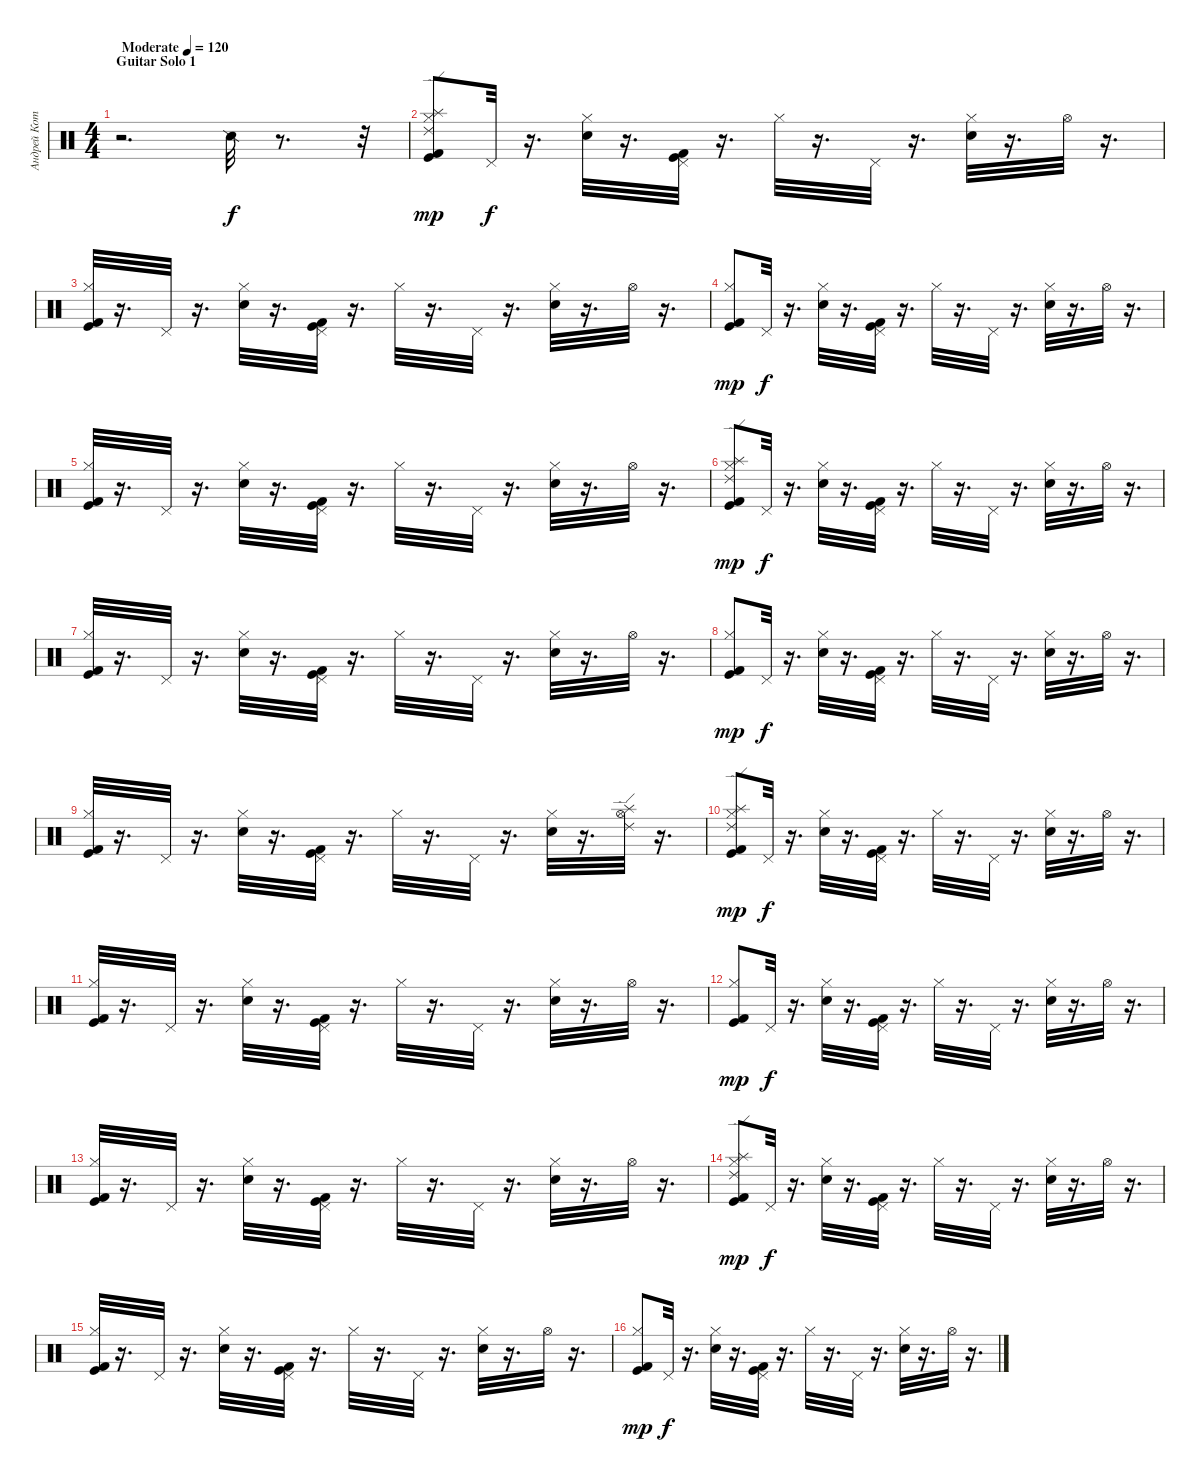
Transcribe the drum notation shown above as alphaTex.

\track ("Андрей Котов " "Андрей Кот") {instrument percussion}
\staff {score}
\articulation defaults
\ts (4 4)
\section ("" "Guitar Solo 1")
\tempo (120 "Moderate")
\clef neutral
\ks c
r.2{d dy f} "Snare (side stick) 2".32 r.8{d} r.32 |
("Kick (hit)" "Splash (hit)" "Ride (edge) 2" "Hi-Hat (closed)" "Kick (hit) 2").8{dy mp} "Pedal Hi-Hat (hit)".32{dy f} r.16{d} ("Hi-Hat (closed)" "Snare (hit) 2").32 r.16{d} ("Kick (hit)" "Pedal Hi-Hat (hit)" "Kick (hit) 2").32 r.16{d} "Hi-Hat (closed)".32 r.16{d} "Pedal Hi-Hat (hit)".32 r.16{d} ("Hi-Hat (closed)" "Snare (hit) 2").32 r.16{d} "Hi-Hat (open)".32 r.16{d} |
("Kick (hit)" "Hi-Hat (closed)" "Kick (hit) 2").32 r.16{d} "Pedal Hi-Hat (hit)".32 r.16{d} ("Hi-Hat (closed)" "Snare (hit) 2").32 r.16{d} ("Kick (hit)" "Pedal Hi-Hat (hit)" "Kick (hit) 2").32 r.16{d} "Hi-Hat (closed)".32 r.16{d} "Pedal Hi-Hat (hit)".32 r.16{d} ("Hi-Hat (closed)" "Snare (hit) 2").32 r.16{d} "Hi-Hat (open)".32 r.16{d} |
("Kick (hit)" "Hi-Hat (closed)" "Kick (hit) 2").8{dy mp} "Pedal Hi-Hat (hit)".32{dy f} r.16{d} ("Hi-Hat (closed)" "Snare (hit) 2").32 r.16{d} ("Kick (hit)" "Pedal Hi-Hat (hit)" "Kick (hit) 2").32 r.16{d} "Hi-Hat (closed)".32 r.16{d} "Pedal Hi-Hat (hit)".32 r.16{d} ("Hi-Hat (closed)" "Snare (hit) 2").32 r.16{d} "Hi-Hat (open)".32 r.16{d} |
("Kick (hit)" "Hi-Hat (closed)" "Kick (hit) 2").32 r.16{d} "Pedal Hi-Hat (hit)".32 r.16{d} ("Hi-Hat (closed)" "Snare (hit) 2").32 r.16{d} ("Kick (hit)" "Pedal Hi-Hat (hit)" "Kick (hit) 2").32 r.16{d} "Hi-Hat (closed)".32 r.16{d} "Pedal Hi-Hat (hit)".32 r.16{d} ("Hi-Hat (closed)" "Snare (hit) 2").32 r.16{d} "Hi-Hat (open)".32 r.16{d} |
("Kick (hit)" "Splash (hit)" "Ride (edge) 2" "Hi-Hat (closed)" "Kick (hit) 2").8{dy mp} "Pedal Hi-Hat (hit)".32{dy f} r.16{d} ("Hi-Hat (closed)" "Snare (hit) 2").32 r.16{d} ("Kick (hit)" "Pedal Hi-Hat (hit)" "Kick (hit) 2").32 r.16{d} "Hi-Hat (closed)".32 r.16{d} "Pedal Hi-Hat (hit)".32 r.16{d} ("Hi-Hat (closed)" "Snare (hit) 2").32 r.16{d} "Hi-Hat (open)".32 r.16{d} |
("Kick (hit)" "Hi-Hat (closed)" "Kick (hit) 2").32 r.16{d} "Pedal Hi-Hat (hit)".32 r.16{d} ("Hi-Hat (closed)" "Snare (hit) 2").32 r.16{d} ("Kick (hit)" "Pedal Hi-Hat (hit)" "Kick (hit) 2").32 r.16{d} "Hi-Hat (closed)".32 r.16{d} "Pedal Hi-Hat (hit)".32 r.16{d} ("Hi-Hat (closed)" "Snare (hit) 2").32 r.16{d} "Hi-Hat (open)".32 r.16{d} |
("Kick (hit)" "Hi-Hat (closed)" "Kick (hit) 2").8{dy mp} "Pedal Hi-Hat (hit)".32{dy f} r.16{d} ("Hi-Hat (closed)" "Snare (hit) 2").32 r.16{d} ("Kick (hit)" "Pedal Hi-Hat (hit)" "Kick (hit) 2").32 r.16{d} "Hi-Hat (closed)".32 r.16{d} "Pedal Hi-Hat (hit)".32 r.16{d} ("Hi-Hat (closed)" "Snare (hit) 2").32 r.16{d} "Hi-Hat (open)".32 r.16{d} |
("Kick (hit)" "Hi-Hat (closed)" "Kick (hit) 2").32 r.16{d} "Pedal Hi-Hat (hit)".32 r.16{d} ("Hi-Hat (closed)" "Snare (hit) 2").32 r.16{d} ("Kick (hit)" "Pedal Hi-Hat (hit)" "Kick (hit) 2").32 r.16{d} "Hi-Hat (closed)".32 r.16{d} "Pedal Hi-Hat (hit)".32 r.16{d} ("Hi-Hat (closed)" "Snare (hit) 2").32 r.16{d} ("Splash (hit)" "Ride (edge) 2" "Hi-Hat (open)").32 r.16{d} |
("Kick (hit)" "Splash (hit)" "Ride (edge) 2" "Hi-Hat (closed)" "Kick (hit) 2").8{dy mp} "Pedal Hi-Hat (hit)".32{dy f} r.16{d} ("Hi-Hat (closed)" "Snare (hit) 2").32 r.16{d} ("Kick (hit)" "Pedal Hi-Hat (hit)" "Kick (hit) 2").32 r.16{d} "Hi-Hat (closed)".32 r.16{d} "Pedal Hi-Hat (hit)".32 r.16{d} ("Hi-Hat (closed)" "Snare (hit) 2").32 r.16{d} "Hi-Hat (open)".32 r.16{d} |
("Kick (hit)" "Hi-Hat (closed)" "Kick (hit) 2").32 r.16{d} "Pedal Hi-Hat (hit)".32 r.16{d} ("Hi-Hat (closed)" "Snare (hit) 2").32 r.16{d} ("Kick (hit)" "Pedal Hi-Hat (hit)" "Kick (hit) 2").32 r.16{d} "Hi-Hat (closed)".32 r.16{d} "Pedal Hi-Hat (hit)".32 r.16{d} ("Hi-Hat (closed)" "Snare (hit) 2").32 r.16{d} "Hi-Hat (open)".32 r.16{d} |
("Kick (hit)" "Hi-Hat (closed)" "Kick (hit) 2").8{dy mp} "Pedal Hi-Hat (hit)".32{dy f} r.16{d} ("Hi-Hat (closed)" "Snare (hit) 2").32 r.16{d} ("Kick (hit)" "Pedal Hi-Hat (hit)" "Kick (hit) 2").32 r.16{d} "Hi-Hat (closed)".32 r.16{d} "Pedal Hi-Hat (hit)".32 r.16{d} ("Hi-Hat (closed)" "Snare (hit) 2").32 r.16{d} "Hi-Hat (open)".32 r.16{d} |
("Kick (hit)" "Hi-Hat (closed)" "Kick (hit) 2").32 r.16{d} "Pedal Hi-Hat (hit)".32 r.16{d} ("Hi-Hat (closed)" "Snare (hit) 2").32 r.16{d} ("Kick (hit)" "Pedal Hi-Hat (hit)" "Kick (hit) 2").32 r.16{d} "Hi-Hat (closed)".32 r.16{d} "Pedal Hi-Hat (hit)".32 r.16{d} ("Hi-Hat (closed)" "Snare (hit) 2").32 r.16{d} "Hi-Hat (open)".32 r.16{d} |
("Kick (hit)" "Splash (hit)" "Ride (edge) 2" "Hi-Hat (closed)" "Kick (hit) 2").8{dy mp} "Pedal Hi-Hat (hit)".32{dy f} r.16{d} ("Hi-Hat (closed)" "Snare (hit) 2").32 r.16{d} ("Kick (hit)" "Pedal Hi-Hat (hit)" "Kick (hit) 2").32 r.16{d} "Hi-Hat (closed)".32 r.16{d} "Pedal Hi-Hat (hit)".32 r.16{d} ("Hi-Hat (closed)" "Snare (hit) 2").32 r.16{d} "Hi-Hat (open)".32 r.16{d} |
("Kick (hit)" "Hi-Hat (closed)" "Kick (hit) 2").32 r.16{d} "Pedal Hi-Hat (hit)".32 r.16{d} ("Hi-Hat (closed)" "Snare (hit) 2").32 r.16{d} ("Kick (hit)" "Pedal Hi-Hat (hit)" "Kick (hit) 2").32 r.16{d} "Hi-Hat (closed)".32 r.16{d} "Pedal Hi-Hat (hit)".32 r.16{d} ("Hi-Hat (closed)" "Snare (hit) 2").32 r.16{d} "Hi-Hat (open)".32 r.16{d} |
("Kick (hit)" "Hi-Hat (closed)" "Kick (hit) 2").8{dy mp} "Pedal Hi-Hat (hit)".32{dy f} r.16{d} ("Hi-Hat (closed)" "Snare (hit) 2").32 r.16{d} ("Kick (hit)" "Pedal Hi-Hat (hit)" "Kick (hit) 2").32 r.16{d} "Hi-Hat (closed)".32 r.16{d} "Pedal Hi-Hat (hit)".32 r.16{d} ("Hi-Hat (closed)" "Snare (hit) 2").32 r.16{d} "Hi-Hat (open)".32 r.16{d}
